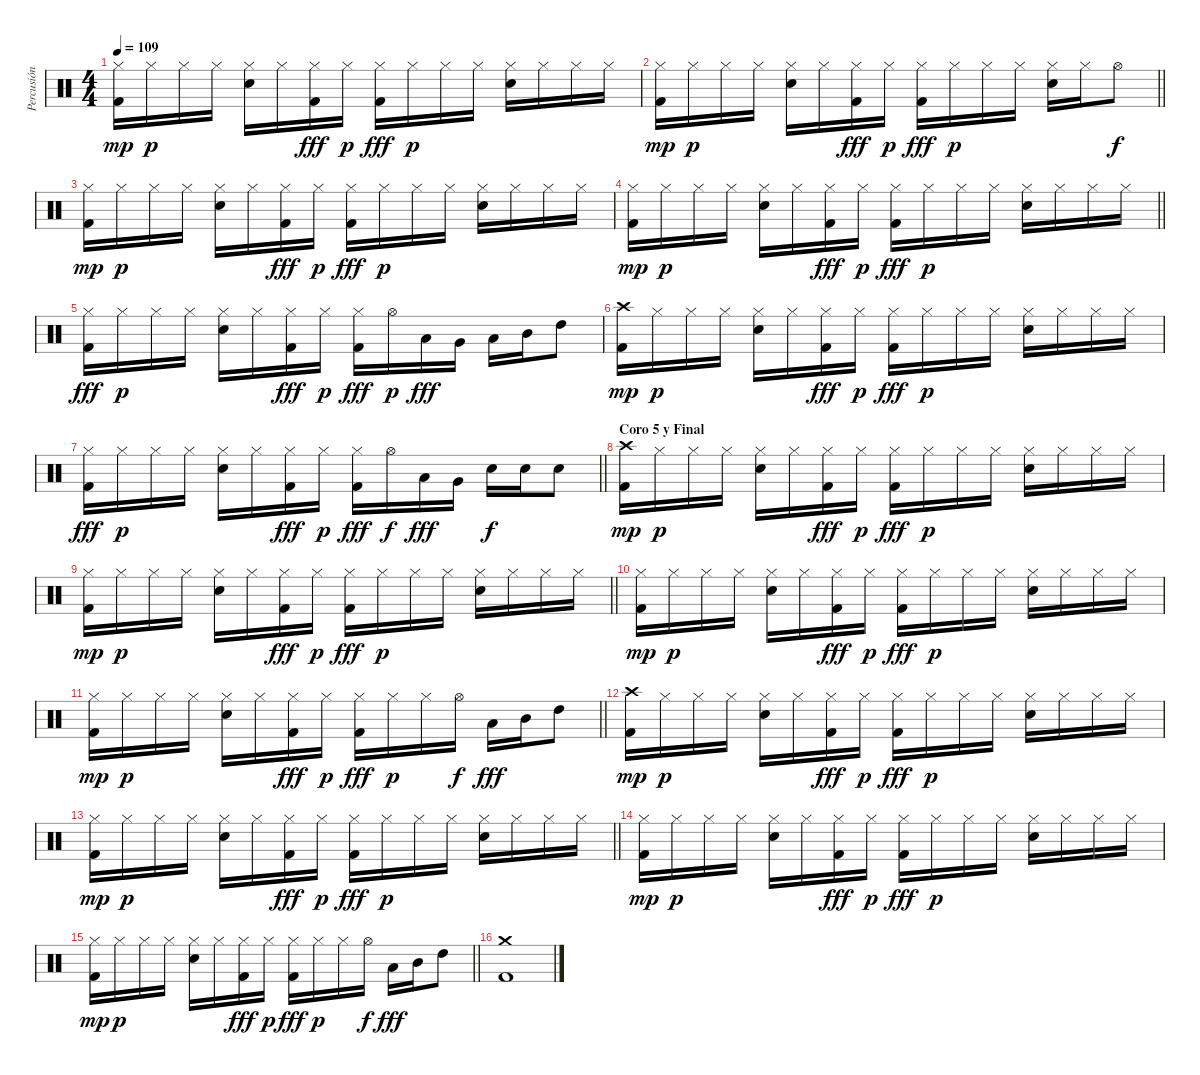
\track ("Percusión" "Percusión") {instrument percussion}
\staff {score}
\articulation defaults
\ts (4 4)
\tempo 109
\clef neutral
\ks c
("Hi-Hat (closed)" "Kick (hit) 2").16{dy mp} "Hi-Hat (closed)".16{dy p} "Hi-Hat (closed)".16 "Hi-Hat (closed)".16 ("Hi-Hat (closed)" "Snare (hit) 2").16 "Hi-Hat (closed)".16 ("Hi-Hat (closed)" "Kick (hit) 2").16{dy fff} "Hi-Hat (closed)".16{dy p} ("Hi-Hat (closed)" "Kick (hit) 2").16{dy fff} "Hi-Hat (closed)".16{dy p} "Hi-Hat (closed)".16 "Hi-Hat (closed)".16 ("Hi-Hat (closed)" "Snare (hit) 2").16 "Hi-Hat (closed)".16 "Hi-Hat (closed)".16 "Hi-Hat (closed)".16 |
\barLineRight lightlight
("Hi-Hat (closed)" "Kick (hit) 2").16{dy mp} "Hi-Hat (closed)".16{dy p} "Hi-Hat (closed)".16 "Hi-Hat (closed)".16 ("Hi-Hat (closed)" "Snare (hit) 2").16 "Hi-Hat (closed)".16 ("Hi-Hat (closed)" "Kick (hit) 2").16{dy fff} "Hi-Hat (closed)".16{dy p} ("Hi-Hat (closed)" "Kick (hit) 2").16{dy fff} "Hi-Hat (closed)".16{dy p} "Hi-Hat (closed)".16 "Hi-Hat (closed)".16 ("Hi-Hat (closed)" "Snare (hit) 2").16 "Hi-Hat (closed)".16 "Hi-Hat (open)".8{dy f} |
("Hi-Hat (closed)" "Kick (hit) 2").16{dy mp} "Hi-Hat (closed)".16{dy p} "Hi-Hat (closed)".16 "Hi-Hat (closed)".16 ("Hi-Hat (closed)" "Snare (hit) 2").16 "Hi-Hat (closed)".16 ("Hi-Hat (closed)" "Kick (hit) 2").16{dy fff} "Hi-Hat (closed)".16{dy p} ("Hi-Hat (closed)" "Kick (hit) 2").16{dy fff} "Hi-Hat (closed)".16{dy p} "Hi-Hat (closed)".16 "Hi-Hat (closed)".16 ("Hi-Hat (closed)" "Snare (hit) 2").16 "Hi-Hat (closed)".16 "Hi-Hat (closed)".16 "Hi-Hat (closed)".16 |
\barLineRight lightlight
("Hi-Hat (closed)" "Kick (hit) 2").16{dy mp} "Hi-Hat (closed)".16{dy p} "Hi-Hat (closed)".16 "Hi-Hat (closed)".16 ("Hi-Hat (closed)" "Snare (hit) 2").16 "Hi-Hat (closed)".16 ("Hi-Hat (closed)" "Kick (hit) 2").16{dy fff} "Hi-Hat (closed)".16{dy p} ("Hi-Hat (closed)" "Kick (hit) 2").16{dy fff} "Hi-Hat (closed)".16{dy p} "Hi-Hat (closed)".16 "Hi-Hat (closed)".16 ("Hi-Hat (closed)" "Snare (hit) 2").16 "Hi-Hat (closed)".16 "Hi-Hat (closed)".16 "Hi-Hat (closed)".16 |
("Hi-Hat (closed)" "Kick (hit) 2").16{dy fff} "Hi-Hat (closed)".16{dy p} "Hi-Hat (closed)".16 "Hi-Hat (closed)".16 ("Hi-Hat (closed)" "Snare (hit) 2").16 "Hi-Hat (closed)".16 ("Hi-Hat (closed)" "Kick (hit) 2").16{dy fff} "Hi-Hat (closed)".16{dy p} ("Hi-Hat (closed)" "Kick (hit) 2").16{dy fff} "Hi-Hat (open)".16{dy p} "Low Floor Tom (hit)".16{dy fff} "Very Low Tom (hit)".16 "Low Tom (hit)".16 "Mid Tom (hit)".16 "High Tom (hit)".8 |
("Crash high (hit)" "Kick (hit) 2").16{dy mp} "Hi-Hat (closed)".16{dy p} "Hi-Hat (closed)".16 "Hi-Hat (closed)".16 ("Hi-Hat (closed)" "Snare (hit) 2").16 "Hi-Hat (closed)".16 ("Hi-Hat (closed)" "Kick (hit) 2").16{dy fff} "Hi-Hat (closed)".16{dy p} ("Hi-Hat (closed)" "Kick (hit) 2").16{dy fff} "Hi-Hat (closed)".16{dy p} "Hi-Hat (closed)".16 "Hi-Hat (closed)".16 ("Hi-Hat (closed)" "Snare (hit) 2").16 "Hi-Hat (closed)".16 "Hi-Hat (closed)".16 "Hi-Hat (closed)".16 |
\barLineRight lightlight
("Hi-Hat (closed)" "Kick (hit) 2").16{dy fff} "Hi-Hat (closed)".16{dy p} "Hi-Hat (closed)".16 "Hi-Hat (closed)".16 ("Hi-Hat (closed)" "Snare (hit) 2").16 "Hi-Hat (closed)".16 ("Hi-Hat (closed)" "Kick (hit) 2").16{dy fff} "Hi-Hat (closed)".16{dy p} ("Hi-Hat (closed)" "Kick (hit) 2").16{dy fff} "Hi-Hat (open)".16{dy f} "Low Floor Tom (hit)".16{dy fff} "Very Low Tom (hit)".16 "Snare (hit) 2".16{dy f} "Snare (hit) 2".16 "Snare (hit) 2".8 |
\section ("" "Coro 5 y Final")
("Crash high (hit)" "Kick (hit) 2").16{dy mp} "Hi-Hat (closed)".16{dy p} "Hi-Hat (closed)".16 "Hi-Hat (closed)".16 ("Hi-Hat (closed)" "Snare (hit) 2").16 "Hi-Hat (closed)".16 ("Hi-Hat (closed)" "Kick (hit) 2").16{dy fff} "Hi-Hat (closed)".16{dy p} ("Hi-Hat (closed)" "Kick (hit) 2").16{dy fff} "Hi-Hat (closed)".16{dy p} "Hi-Hat (closed)".16 "Hi-Hat (closed)".16 ("Hi-Hat (closed)" "Snare (hit) 2").16 "Hi-Hat (closed)".16 "Hi-Hat (closed)".16 "Hi-Hat (closed)".16 |
\barLineRight lightlight
("Hi-Hat (closed)" "Kick (hit) 2").16{dy mp} "Hi-Hat (closed)".16{dy p} "Hi-Hat (closed)".16 "Hi-Hat (closed)".16 ("Hi-Hat (closed)" "Snare (hit) 2").16 "Hi-Hat (closed)".16 ("Hi-Hat (closed)" "Kick (hit) 2").16{dy fff} "Hi-Hat (closed)".16{dy p} ("Hi-Hat (closed)" "Kick (hit) 2").16{dy fff} "Hi-Hat (closed)".16{dy p} "Hi-Hat (closed)".16 "Hi-Hat (closed)".16 ("Hi-Hat (closed)" "Snare (hit) 2").16 "Hi-Hat (closed)".16 "Hi-Hat (closed)".16 "Hi-Hat (closed)".16 |
("Hi-Hat (closed)" "Kick (hit) 2").16{dy mp} "Hi-Hat (closed)".16{dy p} "Hi-Hat (closed)".16 "Hi-Hat (closed)".16 ("Hi-Hat (closed)" "Snare (hit) 2").16 "Hi-Hat (closed)".16 ("Hi-Hat (closed)" "Kick (hit) 2").16{dy fff} "Hi-Hat (closed)".16{dy p} ("Hi-Hat (closed)" "Kick (hit) 2").16{dy fff} "Hi-Hat (closed)".16{dy p} "Hi-Hat (closed)".16 "Hi-Hat (closed)".16 ("Hi-Hat (closed)" "Snare (hit) 2").16 "Hi-Hat (closed)".16 "Hi-Hat (closed)".16 "Hi-Hat (closed)".16 |
\barLineRight lightlight
("Hi-Hat (closed)" "Kick (hit) 2").16{dy mp} "Hi-Hat (closed)".16{dy p} "Hi-Hat (closed)".16 "Hi-Hat (closed)".16 ("Hi-Hat (closed)" "Snare (hit) 2").16 "Hi-Hat (closed)".16 ("Hi-Hat (closed)" "Kick (hit) 2").16{dy fff} "Hi-Hat (closed)".16{dy p} ("Hi-Hat (closed)" "Kick (hit) 2").16{dy fff} "Hi-Hat (closed)".16{dy p} "Hi-Hat (closed)".16 "Hi-Hat (open)".16{dy f} "Low Tom (hit)".16{dy fff} "Mid Tom (hit)".16 "High Tom (hit)".8 |
("Crash high (hit)" "Kick (hit) 2").16{dy mp} "Hi-Hat (closed)".16{dy p} "Hi-Hat (closed)".16 "Hi-Hat (closed)".16 ("Hi-Hat (closed)" "Snare (hit) 2").16 "Hi-Hat (closed)".16 ("Hi-Hat (closed)" "Kick (hit) 2").16{dy fff} "Hi-Hat (closed)".16{dy p} ("Hi-Hat (closed)" "Kick (hit) 2").16{dy fff} "Hi-Hat (closed)".16{dy p} "Hi-Hat (closed)".16 "Hi-Hat (closed)".16 ("Hi-Hat (closed)" "Snare (hit) 2").16 "Hi-Hat (closed)".16 "Hi-Hat (closed)".16 "Hi-Hat (closed)".16 |
\barLineRight lightlight
("Hi-Hat (closed)" "Kick (hit) 2").16{dy mp} "Hi-Hat (closed)".16{dy p} "Hi-Hat (closed)".16 "Hi-Hat (closed)".16 ("Hi-Hat (closed)" "Snare (hit) 2").16 "Hi-Hat (closed)".16 ("Hi-Hat (closed)" "Kick (hit) 2").16{dy fff} "Hi-Hat (closed)".16{dy p} ("Hi-Hat (closed)" "Kick (hit) 2").16{dy fff} "Hi-Hat (closed)".16{dy p} "Hi-Hat (closed)".16 "Hi-Hat (closed)".16 ("Hi-Hat (closed)" "Snare (hit) 2").16 "Hi-Hat (closed)".16 "Hi-Hat (closed)".16 "Hi-Hat (closed)".16 |
("Hi-Hat (closed)" "Kick (hit) 2").16{dy mp} "Hi-Hat (closed)".16{dy p} "Hi-Hat (closed)".16 "Hi-Hat (closed)".16 ("Hi-Hat (closed)" "Snare (hit) 2").16 "Hi-Hat (closed)".16 ("Hi-Hat (closed)" "Kick (hit) 2").16{dy fff} "Hi-Hat (closed)".16{dy p} ("Hi-Hat (closed)" "Kick (hit) 2").16{dy fff} "Hi-Hat (closed)".16{dy p} "Hi-Hat (closed)".16 "Hi-Hat (closed)".16 ("Hi-Hat (closed)" "Snare (hit) 2").16 "Hi-Hat (closed)".16 "Hi-Hat (closed)".16 "Hi-Hat (closed)".16 |
\barLineRight lightlight
("Hi-Hat (closed)" "Kick (hit) 2").16{dy mp} "Hi-Hat (closed)".16{dy p} "Hi-Hat (closed)".16 "Hi-Hat (closed)".16 ("Hi-Hat (closed)" "Snare (hit) 2").16 "Hi-Hat (closed)".16 ("Hi-Hat (closed)" "Kick (hit) 2").16{dy fff} "Hi-Hat (closed)".16{dy p} ("Hi-Hat (closed)" "Kick (hit) 2").16{dy fff} "Hi-Hat (closed)".16{dy p} "Hi-Hat (closed)".16 "Hi-Hat (open)".16{dy f} "Low Tom (hit)".16{dy fff} "Mid Tom (hit)".16 "High Tom (hit)".8 |
("Crash medium (hit)" "Kick (hit) 2").1
